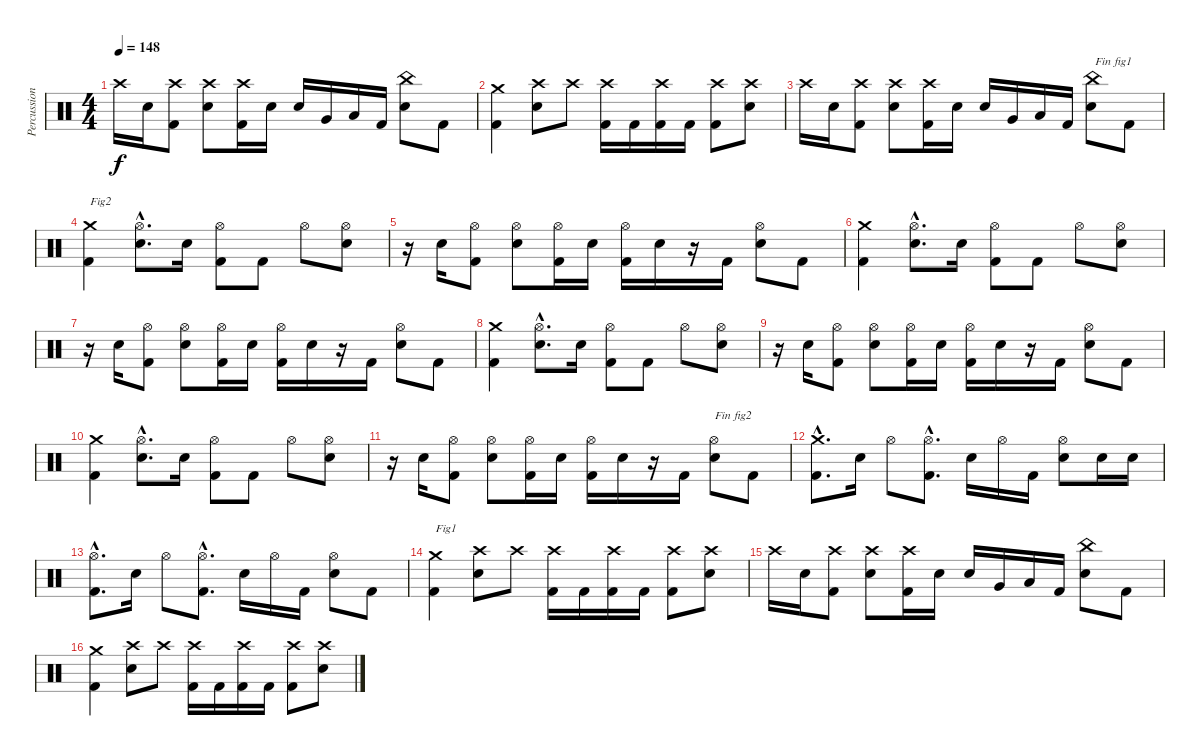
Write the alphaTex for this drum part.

\track ("Percussions" "Percussion") {instrument percussion}
\staff {score}
\articulation defaults
\ts (4 4)
\tempo 148
\clef neutral
\ks c "Crash high (hit)".16{dy f} "Electric Snare (hit)".16
("Kick (hit) 2" "Crash high (hit)").8 ("Electric Snare (hit)" "Crash high (hit)").8 ("Kick (hit) 2" "Crash high (hit)").16 "Electric Snare (hit)".16 "Electric Snare (hit)".16 "Very Low Tom (hit)".16 "Low Floor Tom (hit)".16 "Kick (hit) 2".16 ("Electric Snare (hit)" "China (hit)").8 "Kick (hit) 2".8 |
("Kick (hit) 2" "Crash medium (hit)").4 ("Electric Snare (hit)" "Crash high (hit)").8 "Crash high (hit)".8 ("Kick (hit) 2" "Crash high (hit)").16 "Kick (hit) 2".16 ("Kick (hit) 2" "Crash high (hit)").16 "Kick (hit) 2".16 ("Kick (hit) 2" "Crash high (hit)").8 ("Electric Snare (hit)" "Crash high (hit)").8 |
"Crash high (hit)".16 "Electric Snare (hit)".16 ("Kick (hit) 2" "Crash high (hit)").8 ("Electric Snare (hit)" "Crash high (hit)").8 ("Kick (hit) 2" "Crash high (hit)").16 "Electric Snare (hit)".16 "Electric Snare (hit)".16 "Very Low Tom (hit)".16 "Low Floor Tom (hit)".16 "Kick (hit) 2".16 ("Electric Snare (hit)" "China (hit)").8{txt "Fin fig1"} "Kick (hit) 2".8 |
("Kick (hit) 2" "Crash medium (hit)").4{txt "Fig2"} ("Electric Snare (hit)"{hac} "Hi-Hat (open)"{hac}).8{d} "Electric Snare (hit)".16 ("Kick (hit) 2" "Hi-Hat (open)").8 "Kick (hit) 2".8 "Hi-Hat (open)".8 ("Electric Snare (hit)" "Hi-Hat (open)").8 |
r.16 "Electric Snare (hit)".16 ("Kick (hit) 2" "Hi-Hat (open)").8 ("Electric Snare (hit)" "Hi-Hat (open)").8 ("Kick (hit) 2" "Hi-Hat (open)").16 "Electric Snare (hit)".16 ("Kick (hit) 2" "Hi-Hat (open)").16 "Electric Snare (hit)".16 r.16 "Kick (hit) 2".16 ("Electric Snare (hit)" "Hi-Hat (open)").8 "Kick (hit) 2".8 |
("Kick (hit) 2" "Crash medium (hit)").4 ("Electric Snare (hit)"{hac} "Hi-Hat (open)"{hac}).8{d} "Electric Snare (hit)".16 ("Kick (hit) 2" "Hi-Hat (open)").8 "Kick (hit) 2".8 "Hi-Hat (open)".8 ("Electric Snare (hit)" "Hi-Hat (open)").8 |
r.16 "Electric Snare (hit)".16 ("Kick (hit) 2" "Hi-Hat (open)").8 ("Electric Snare (hit)" "Hi-Hat (open)").8 ("Kick (hit) 2" "Hi-Hat (open)").16 "Electric Snare (hit)".16 ("Kick (hit) 2" "Hi-Hat (open)").16 "Electric Snare (hit)".16 r.16 "Kick (hit) 2".16 ("Electric Snare (hit)" "Hi-Hat (open)").8 "Kick (hit) 2".8 |
("Kick (hit) 2" "Crash medium (hit)").4 ("Electric Snare (hit)"{hac} "Hi-Hat (open)"{hac}).8{d} "Electric Snare (hit)".16 ("Kick (hit) 2" "Hi-Hat (open)").8 "Kick (hit) 2".8 "Hi-Hat (open)".8 ("Electric Snare (hit)" "Hi-Hat (open)").8 |
r.16 "Electric Snare (hit)".16 ("Kick (hit) 2" "Hi-Hat (open)").8 ("Electric Snare (hit)" "Hi-Hat (open)").8 ("Kick (hit) 2" "Hi-Hat (open)").16 "Electric Snare (hit)".16 ("Kick (hit) 2" "Hi-Hat (open)").16 "Electric Snare (hit)".16 r.16 "Kick (hit) 2".16 ("Electric Snare (hit)" "Hi-Hat (open)").8 "Kick (hit) 2".8 |
("Kick (hit) 2" "Crash medium (hit)").4 ("Electric Snare (hit)"{hac} "Hi-Hat (open)"{hac}).8{d} "Electric Snare (hit)".16 ("Kick (hit) 2" "Hi-Hat (open)").8 "Kick (hit) 2".8 "Hi-Hat (open)".8 ("Electric Snare (hit)" "Hi-Hat (open)").8 |
r.16 "Electric Snare (hit)".16 ("Kick (hit) 2" "Hi-Hat (open)").8 ("Electric Snare (hit)" "Hi-Hat (open)").8 ("Kick (hit) 2" "Hi-Hat (open)").16 "Electric Snare (hit)".16 ("Kick (hit) 2" "Hi-Hat (open)").16 "Electric Snare (hit)".16 r.16 "Kick (hit) 2".16 ("Electric Snare (hit)" "Hi-Hat (open)").8{txt "Fin fig2"} "Kick (hit) 2".8 |
("Kick (hit) 2"{hac} "Crash medium (hit)"{hac}).8{d} "Electric Snare (hit)".16 "Hi-Hat (open)".8 ("Kick (hit) 2"{hac} "Hi-Hat (open)"{hac}).8{d} "Electric Snare (hit)".16 "Hi-Hat (open)".16 "Kick (hit) 2".16 ("Electric Snare (hit)" "Hi-Hat (open)").8 "Electric Snare (hit)".16 "Electric Snare (hit)".16 |
("Kick (hit) 2"{hac} "Hi-Hat (open)"{hac}).8{d} "Electric Snare (hit)".16 "Hi-Hat (open)".8 ("Kick (hit) 2"{hac} "Hi-Hat (open)"{hac}).8{d} "Electric Snare (hit)".16 "Hi-Hat (open)".16 "Kick (hit) 2".16 ("Electric Snare (hit)" "Hi-Hat (open)").8 "Kick (hit) 2".8 |
("Kick (hit) 2" "Crash medium (hit)").4{txt "Fig1"} ("Electric Snare (hit)" "Crash high (hit)").8 "Crash high (hit)".8 ("Kick (hit) 2" "Crash high (hit)").16 "Kick (hit) 2".16 ("Kick (hit) 2" "Crash high (hit)").16 "Kick (hit) 2".16 ("Kick (hit) 2" "Crash high (hit)").8 ("Electric Snare (hit)" "Crash high (hit)").8 |
"Crash high (hit)".16 "Electric Snare (hit)".16 ("Kick (hit) 2" "Crash high (hit)").8 ("Electric Snare (hit)" "Crash high (hit)").8 ("Kick (hit) 2" "Crash high (hit)").16 "Electric Snare (hit)".16 "Electric Snare (hit)".16 "Very Low Tom (hit)".16 "Low Floor Tom (hit)".16 "Kick (hit) 2".16 ("Electric Snare (hit)" "China (hit)").8 "Kick (hit) 2".8 |
("Kick (hit) 2" "Crash medium (hit)").4 ("Electric Snare (hit)" "Crash high (hit)").8 "Crash high (hit)".8 ("Kick (hit) 2" "Crash high (hit)").16 "Kick (hit) 2".16 ("Kick (hit) 2" "Crash high (hit)").16 "Kick (hit) 2".16 ("Kick (hit) 2" "Crash high (hit)").8 ("Electric Snare (hit)" "Crash high (hit)").8
